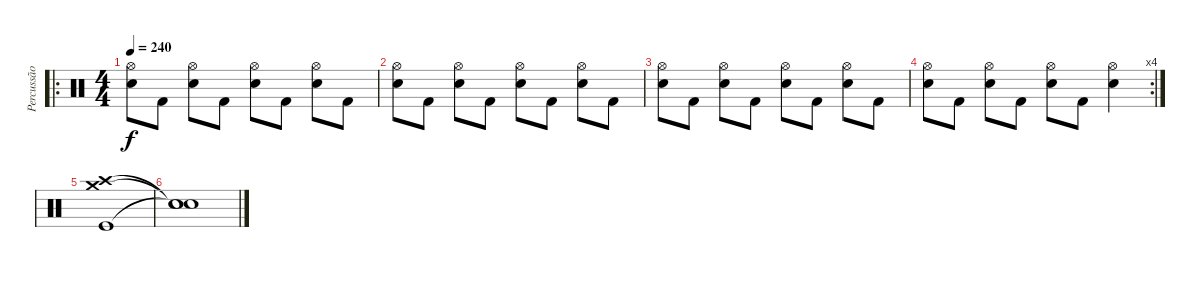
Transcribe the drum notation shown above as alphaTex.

\track ("Percussão" "Percussão") {instrument percussion}
\staff {score}
\articulation defaults
\ro
\ts (4 4)
\tempo 240
\clef neutral
\ks c
("Hi-Hat (open)" "Electric Snare (hit)").8{dy f} "Kick (hit) 2".8 ("Hi-Hat (open)" "Electric Snare (hit)").8 "Kick (hit) 2".8 ("Hi-Hat (open)" "Electric Snare (hit)").8 "Kick (hit) 2".8 ("Hi-Hat (open)" "Electric Snare (hit)").8 "Kick (hit) 2".8 |
("Hi-Hat (open)" "Electric Snare (hit)").8 "Kick (hit) 2".8 ("Hi-Hat (open)" "Electric Snare (hit)").8 "Kick (hit) 2".8 ("Hi-Hat (open)" "Electric Snare (hit)").8 "Kick (hit) 2".8 ("Hi-Hat (open)" "Electric Snare (hit)").8 "Kick (hit) 2".8 |
("Hi-Hat (open)" "Electric Snare (hit)").8 "Kick (hit) 2".8 ("Hi-Hat (open)" "Electric Snare (hit)").8 "Kick (hit) 2".8 ("Hi-Hat (open)" "Electric Snare (hit)").8 "Kick (hit) 2".8 ("Hi-Hat (open)" "Electric Snare (hit)").8 "Kick (hit) 2".8 |
\rc 4
("Hi-Hat (open)" "Electric Snare (hit)").8 "Kick (hit) 2".8 ("Hi-Hat (open)" "Electric Snare (hit)").8 "Kick (hit) 2".8 ("Hi-Hat (open)" "Electric Snare (hit)").8 "Kick (hit) 2".8 ("Hi-Hat (open)" "Electric Snare (hit)").4 |
("Kick (hit)" "Crash high (hit)" "Crash medium (hit)").1 |
("Snare (hit)"{t} "Snare (hit)"{t} "Snare (hit)"{t}).1
